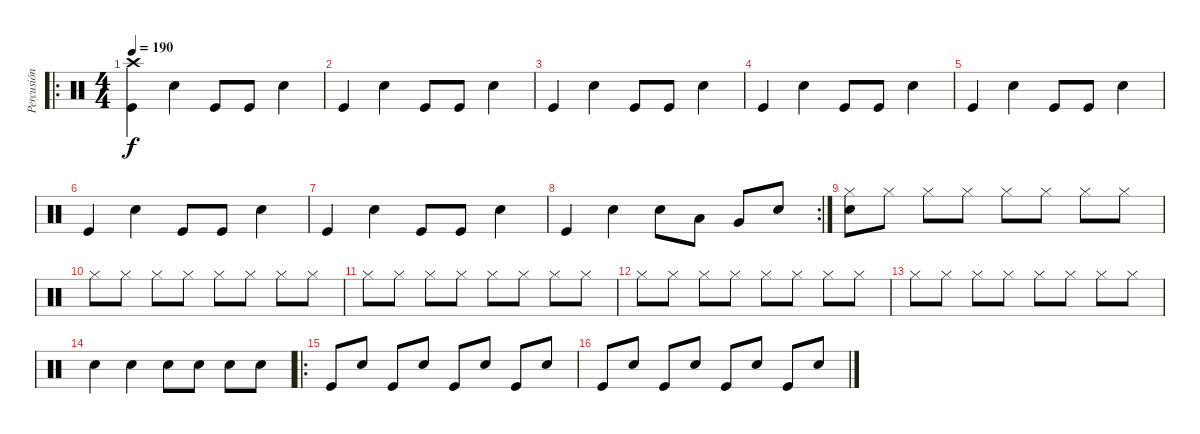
\track ("Percusión" "Percusión") {instrument percussion}
\staff {score}
\articulation defaults
\ro
\ts (4 4)
\tempo 190
\clef neutral
\ks c
("Crash high (hit)" "Kick (hit)").4{dy f} "Electric Snare (hit)".4 "Kick (hit)".8 "Kick (hit)".8 "Electric Snare (hit)".4 |
"Kick (hit)".4 "Electric Snare (hit)".4 "Kick (hit)".8 "Kick (hit)".8 "Electric Snare (hit)".4 |
"Kick (hit)".4 "Electric Snare (hit)".4 "Kick (hit)".8 "Kick (hit)".8 "Electric Snare (hit)".4 |
"Kick (hit)".4 "Electric Snare (hit)".4 "Kick (hit)".8 "Kick (hit)".8 "Electric Snare (hit)".4 |
"Kick (hit)".4 "Electric Snare (hit)".4 "Kick (hit)".8 "Kick (hit)".8 "Electric Snare (hit)".4 |
"Kick (hit)".4 "Electric Snare (hit)".4 "Kick (hit)".8 "Kick (hit)".8 "Electric Snare (hit)".4 |
"Kick (hit)".4 "Electric Snare (hit)".4 "Kick (hit)".8 "Kick (hit)".8 "Electric Snare (hit)".4 |
\rc 2 "Kick (hit)".4 "Electric Snare (hit)".4 "Electric Snare (hit)".8 "Low Floor Tom (hit)".8 "Very Low Tom (hit)".8 "Electric Snare (hit)".8
|
("Snare (hit)" "Hi-Hat (closed)").8 "Hi-Hat (closed)".8 "Hi-Hat (closed)".8 "Hi-Hat (closed)".8 "Hi-Hat (closed)".8 "Hi-Hat (closed)".8 "Hi-Hat (closed)".8 "Hi-Hat (closed)".8 |
"Hi-Hat (closed)".8 "Hi-Hat (closed)".8 "Hi-Hat (closed)".8 "Hi-Hat (closed)".8 "Hi-Hat (closed)".8 "Hi-Hat (closed)".8 "Hi-Hat (closed)".8 "Hi-Hat (closed)".8 |
"Hi-Hat (closed)".8 "Hi-Hat (closed)".8 "Hi-Hat (closed)".8 "Hi-Hat (closed)".8 "Hi-Hat (closed)".8 "Hi-Hat (closed)".8 "Hi-Hat (closed)".8 "Hi-Hat (closed)".8 |
"Hi-Hat (closed)".8 "Hi-Hat (closed)".8 "Hi-Hat (closed)".8 "Hi-Hat (closed)".8 "Hi-Hat (closed)".8 "Hi-Hat (closed)".8 "Hi-Hat (closed)".8 "Hi-Hat (closed)".8 |
"Hi-Hat (closed)".8 "Hi-Hat (closed)".8 "Hi-Hat (closed)".8 "Hi-Hat (closed)".8 "Hi-Hat (closed)".8 "Hi-Hat (closed)".8 "Hi-Hat (closed)".8 "Hi-Hat (closed)".8 |
"Electric Snare (hit)".4 "Electric Snare (hit)".4 "Electric Snare (hit)".8 "Electric Snare (hit)".8 "Electric Snare (hit)".8 "Electric Snare (hit)".8 |
\ro "Kick (hit)".8 "Electric Snare (hit)".8 "Kick (hit)".8 "Electric Snare (hit)".8 "Kick (hit)".8 "Electric Snare (hit)".8 "Kick (hit)".8 "Electric Snare (hit)".8
|
"Kick (hit)".8 "Electric Snare (hit)".8 "Kick (hit)".8 "Electric Snare (hit)".8 "Kick (hit)".8 "Electric Snare (hit)".8 "Kick (hit)".8 "Electric Snare (hit)".8
